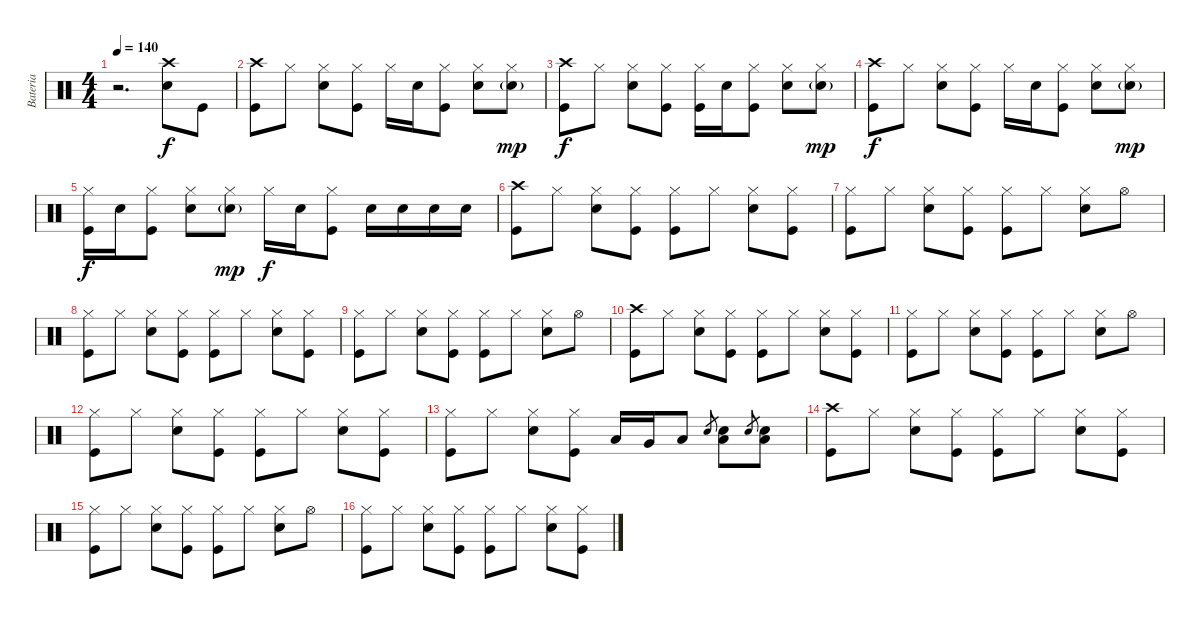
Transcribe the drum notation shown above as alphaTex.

\track ("Bateria" "Bateria") {instrument percussion}
\staff {score}
\articulation defaults
\ts (4 4)
\tempo 140
\clef neutral
\ks c
r.2{d dy f} ("Crash high (hit)" "Snare (hit) 2").8 "Kick (hit)".8 |
("Crash high (hit)" "Kick (hit)").8 "Hi-Hat (closed)".8 ("Hi-Hat (closed)" "Snare (hit) 2").8 ("Hi-Hat (closed)" "Kick (hit)").8 "Hi-Hat (closed)".16 "Snare (hit) 2".16 ("Hi-Hat (closed)" "Kick (hit)").8 ("Hi-Hat (closed)" "Snare (hit) 2").8 ("Hi-Hat (closed)" "Snare (hit) 2"{g}).8{dy mp} |
("Crash high (hit)" "Kick (hit)").8{dy f} "Hi-Hat (closed)".8 ("Hi-Hat (closed)" "Snare (hit) 2").8 ("Hi-Hat (closed)" "Kick (hit)").8 ("Hi-Hat (closed)" "Kick (hit)").16 "Snare (hit) 2".16 ("Hi-Hat (closed)" "Kick (hit)").8 ("Hi-Hat (closed)" "Snare (hit) 2").8 ("Hi-Hat (closed)" "Snare (hit) 2"{g}).8{dy mp} |
("Crash high (hit)" "Kick (hit)").8{dy f} "Hi-Hat (closed)".8 ("Hi-Hat (closed)" "Snare (hit) 2").8 ("Hi-Hat (closed)" "Kick (hit)").8 "Hi-Hat (closed)".16 "Snare (hit) 2".16 ("Hi-Hat (closed)" "Kick (hit)").8 ("Hi-Hat (closed)" "Snare (hit) 2").8 ("Hi-Hat (closed)" "Snare (hit) 2"{g}).8{dy mp} |
("Hi-Hat (closed)" "Kick (hit)").16{dy f} "Snare (hit) 2".16 ("Hi-Hat (closed)" "Kick (hit)").8 ("Hi-Hat (closed)" "Snare (hit) 2").8 ("Hi-Hat (closed)" "Snare (hit) 2"{g}).8{dy mp} "Hi-Hat (closed)".16{dy f} "Snare (hit) 2".16 ("Hi-Hat (closed)" "Kick (hit)").8 "Snare (hit) 2".16 "Snare (hit) 2".16 "Snare (hit) 2".16 "Snare (hit) 2".16 |
("Crash high (hit)" "Kick (hit)").8 "Hi-Hat (closed)".8 ("Hi-Hat (closed)" "Snare (hit) 2").8 ("Hi-Hat (closed)" "Kick (hit)").8 ("Hi-Hat (closed)" "Kick (hit)").8 "Hi-Hat (closed)".8 ("Hi-Hat (closed)" "Snare (hit) 2").8 ("Hi-Hat (closed)" "Kick (hit)").8 |
("Hi-Hat (closed)" "Kick (hit)").8 "Hi-Hat (closed)".8 ("Hi-Hat (closed)" "Snare (hit) 2").8 ("Hi-Hat (closed)" "Kick (hit)").8 ("Hi-Hat (closed)" "Kick (hit)").8 "Hi-Hat (closed)".8 ("Hi-Hat (closed)" "Snare (hit) 2").8 "Hi-Hat (open)".8 |
("Hi-Hat (closed)" "Kick (hit)").8 "Hi-Hat (closed)".8 ("Hi-Hat (closed)" "Snare (hit) 2").8 ("Hi-Hat (closed)" "Kick (hit)").8 ("Hi-Hat (closed)" "Kick (hit)").8 "Hi-Hat (closed)".8 ("Hi-Hat (closed)" "Snare (hit) 2").8 ("Hi-Hat (closed)" "Kick (hit)").8 |
("Hi-Hat (closed)" "Kick (hit)").8 "Hi-Hat (closed)".8 ("Hi-Hat (closed)" "Snare (hit) 2").8 ("Hi-Hat (closed)" "Kick (hit)").8 ("Hi-Hat (closed)" "Kick (hit)").8 "Hi-Hat (closed)".8 ("Hi-Hat (closed)" "Snare (hit) 2").8 "Hi-Hat (open)".8 |
("Crash high (hit)" "Kick (hit)").8 "Hi-Hat (closed)".8 ("Hi-Hat (closed)" "Snare (hit) 2").8 ("Hi-Hat (closed)" "Kick (hit)").8 ("Hi-Hat (closed)" "Kick (hit)").8 "Hi-Hat (closed)".8 ("Hi-Hat (closed)" "Snare (hit) 2").8 ("Hi-Hat (closed)" "Kick (hit)").8 |
("Hi-Hat (closed)" "Kick (hit)").8 "Hi-Hat (closed)".8 ("Hi-Hat (closed)" "Snare (hit) 2").8 ("Hi-Hat (closed)" "Kick (hit)").8 ("Hi-Hat (closed)" "Kick (hit)").8 "Hi-Hat (closed)".8 ("Hi-Hat (closed)" "Snare (hit) 2").8 "Hi-Hat (open)".8 |
("Hi-Hat (closed)" "Kick (hit)").8 "Hi-Hat (closed)".8 ("Hi-Hat (closed)" "Snare (hit) 2").8 ("Hi-Hat (closed)" "Kick (hit)").8 ("Hi-Hat (closed)" "Kick (hit)").8 "Hi-Hat (closed)".8 ("Hi-Hat (closed)" "Snare (hit) 2").8 ("Hi-Hat (closed)" "Kick (hit)").8 |
("Hi-Hat (closed)" "Kick (hit)").8 "Hi-Hat (closed)".8 ("Hi-Hat (closed)" "Snare (hit) 2").8 ("Hi-Hat (closed)" "Kick (hit)").8 "Low Tom (hit)".16 "Very Low Tom (hit)".16 "Low Floor Tom (hit)".8 "Snare (hit) 2".8{gr} ("Snare (hit) 2" "Low Floor Tom (hit)").8 "Snare (hit) 2".8{gr} ("Snare (hit) 2" "Low Floor Tom (hit)").8 |
("Crash high (hit)" "Kick (hit)").8 "Hi-Hat (closed)".8 ("Hi-Hat (closed)" "Snare (hit) 2").8 ("Hi-Hat (closed)" "Kick (hit)").8 ("Hi-Hat (closed)" "Kick (hit)").8 "Hi-Hat (closed)".8 ("Hi-Hat (closed)" "Snare (hit) 2").8 ("Hi-Hat (closed)" "Kick (hit)").8 |
("Hi-Hat (closed)" "Kick (hit)").8 "Hi-Hat (closed)".8 ("Hi-Hat (closed)" "Snare (hit) 2").8 ("Hi-Hat (closed)" "Kick (hit)").8 ("Hi-Hat (closed)" "Kick (hit)").8 "Hi-Hat (closed)".8 ("Hi-Hat (closed)" "Snare (hit) 2").8 "Hi-Hat (open)".8 |
("Hi-Hat (closed)" "Kick (hit)").8 "Hi-Hat (closed)".8 ("Hi-Hat (closed)" "Snare (hit) 2").8 ("Hi-Hat (closed)" "Kick (hit)").8 ("Hi-Hat (closed)" "Kick (hit)").8 "Hi-Hat (closed)".8 ("Hi-Hat (closed)" "Snare (hit) 2").8 ("Hi-Hat (closed)" "Kick (hit)").8
